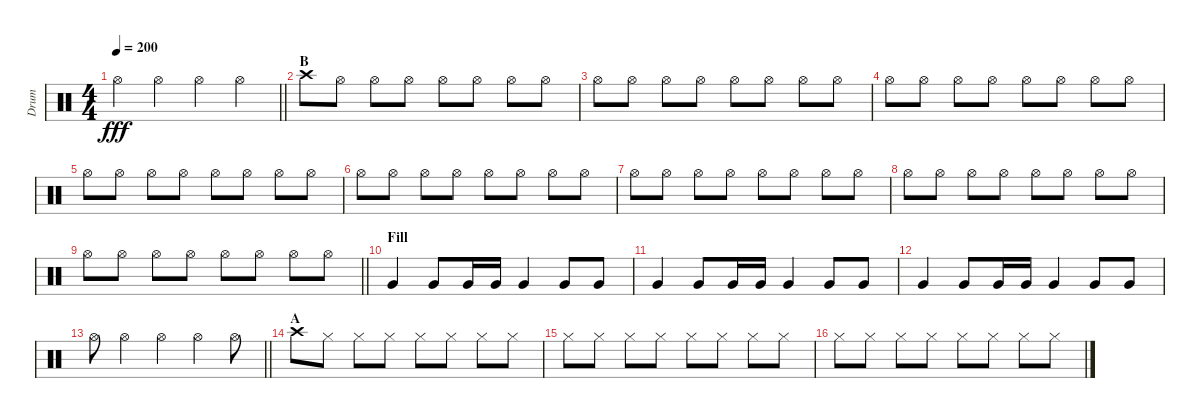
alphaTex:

\track ("Drum" "Drum") {instrument percussion}
\staff {score}
\articulation defaults
\ts (4 4)
\tempo 200
\clef neutral
\barLineRight lightlight
\ks c "Hi-Hat (open)".4{dy fff} "Hi-Hat (open)".4 "Hi-Hat (open)".4 "Hi-Hat (open)".4
|
\section ("" "B")
"Crash high (hit)".8 "Hi-Hat (open)".8 "Hi-Hat (open)".8 "Hi-Hat (open)".8 "Hi-Hat (open)".8 "Hi-Hat (open)".8 "Hi-Hat (open)".8 "Hi-Hat (open)".8 |
"Hi-Hat (open)".8 "Hi-Hat (open)".8 "Hi-Hat (open)".8 "Hi-Hat (open)".8 "Hi-Hat (open)".8 "Hi-Hat (open)".8 "Hi-Hat (open)".8 "Hi-Hat (open)".8 |
"Hi-Hat (open)".8 "Hi-Hat (open)".8 "Hi-Hat (open)".8 "Hi-Hat (open)".8 "Hi-Hat (open)".8 "Hi-Hat (open)".8 "Hi-Hat (open)".8 "Hi-Hat (open)".8 |
"Hi-Hat (open)".8 "Hi-Hat (open)".8 "Hi-Hat (open)".8 "Hi-Hat (open)".8 "Hi-Hat (open)".8 "Hi-Hat (open)".8 "Hi-Hat (open)".8 "Hi-Hat (open)".8 |
"Hi-Hat (open)".8 "Hi-Hat (open)".8 "Hi-Hat (open)".8 "Hi-Hat (open)".8 "Hi-Hat (open)".8 "Hi-Hat (open)".8 "Hi-Hat (open)".8 "Hi-Hat (open)".8 |
"Hi-Hat (open)".8 "Hi-Hat (open)".8 "Hi-Hat (open)".8 "Hi-Hat (open)".8 "Hi-Hat (open)".8 "Hi-Hat (open)".8 "Hi-Hat (open)".8 "Hi-Hat (open)".8 |
"Hi-Hat (open)".8 "Hi-Hat (open)".8 "Hi-Hat (open)".8 "Hi-Hat (open)".8 "Hi-Hat (open)".8 "Hi-Hat (open)".8 "Hi-Hat (open)".8 "Hi-Hat (open)".8 |
\barLineRight lightlight "Hi-Hat (open)".8 "Hi-Hat (open)".8 "Hi-Hat (open)".8 "Hi-Hat (open)".8 "Hi-Hat (open)".8 "Hi-Hat (open)".8 "Hi-Hat (open)".8 "Hi-Hat (open)".8
|
\section ("" "Fill")
"Very Low Tom (hit)".4 "Very Low Tom (hit)".8 "Very Low Tom (hit)".16 "Very Low Tom (hit)".16 "Very Low Tom (hit)".4 "Very Low Tom (hit)".8 "Very Low Tom (hit)".8 |
"Very Low Tom (hit)".4 "Very Low Tom (hit)".8 "Very Low Tom (hit)".16 "Very Low Tom (hit)".16 "Very Low Tom (hit)".4 "Very Low Tom (hit)".8 "Very Low Tom (hit)".8 |
"Very Low Tom (hit)".4 "Very Low Tom (hit)".8 "Very Low Tom (hit)".16 "Very Low Tom (hit)".16 "Very Low Tom (hit)".4 "Very Low Tom (hit)".8 "Very Low Tom (hit)".8 |
\barLineRight lightlight "Hi-Hat (open)".8 "Hi-Hat (open)".4 "Hi-Hat (open)".4 "Hi-Hat (open)".4 "Hi-Hat (open)".8
|
\section ("" "A")
"Crash high (hit)".8 "Hi-Hat (closed)".8 "Hi-Hat (closed)".8 "Hi-Hat (closed)".8 "Hi-Hat (closed)".8 "Hi-Hat (closed)".8 "Hi-Hat (closed)".8 "Hi-Hat (closed)".8 |
"Hi-Hat (closed)".8 "Hi-Hat (closed)".8 "Hi-Hat (closed)".8 "Hi-Hat (closed)".8 "Hi-Hat (closed)".8 "Hi-Hat (closed)".8 "Hi-Hat (closed)".8 "Hi-Hat (closed)".8 |
"Hi-Hat (closed)".8 "Hi-Hat (closed)".8 "Hi-Hat (closed)".8 "Hi-Hat (closed)".8 "Hi-Hat (closed)".8 "Hi-Hat (closed)".8 "Hi-Hat (closed)".8 "Hi-Hat (closed)".8
